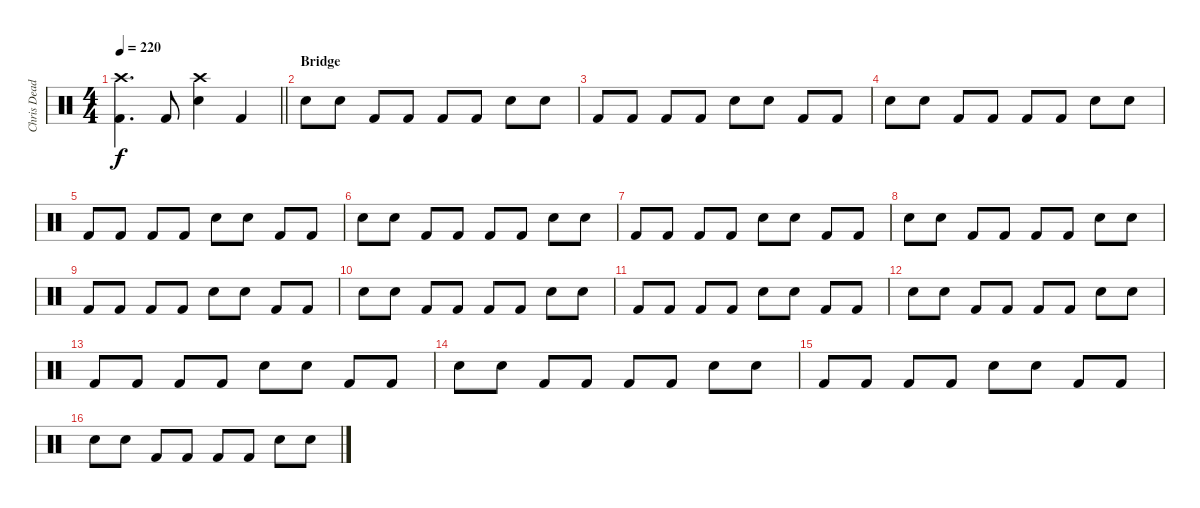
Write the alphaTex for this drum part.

\track ("Chris Dead" "Chris Dead") {instrument percussion}
\staff {score}
\articulation defaults
\ts (4 4)
\tempo 220
\clef neutral
\barLineRight lightlight
\ks c
("Crash high (hit)" "Kick (hit) 2").4{d dy f} "Kick (hit) 2".8 ("Crash high (hit)" "Electric Snare (hit)").4 "Kick (hit) 2".4 |
\section ("" "Bridge")
"Electric Snare (hit)".8 "Electric Snare (hit)".8 "Kick (hit) 2".8 "Kick (hit) 2".8 "Kick (hit) 2".8 "Kick (hit) 2".8 "Electric Snare (hit)".8 "Electric Snare (hit)".8 |
"Kick (hit) 2".8 "Kick (hit) 2".8 "Kick (hit) 2".8 "Kick (hit) 2".8 "Electric Snare (hit)".8 "Electric Snare (hit)".8 "Kick (hit) 2".8 "Kick (hit) 2".8 |
"Electric Snare (hit)".8 "Electric Snare (hit)".8 "Kick (hit) 2".8 "Kick (hit) 2".8 "Kick (hit) 2".8 "Kick (hit) 2".8 "Electric Snare (hit)".8 "Electric Snare (hit)".8 |
"Kick (hit) 2".8 "Kick (hit) 2".8 "Kick (hit) 2".8 "Kick (hit) 2".8 "Electric Snare (hit)".8 "Electric Snare (hit)".8 "Kick (hit) 2".8 "Kick (hit) 2".8 |
"Electric Snare (hit)".8 "Electric Snare (hit)".8 "Kick (hit) 2".8 "Kick (hit) 2".8 "Kick (hit) 2".8 "Kick (hit) 2".8 "Electric Snare (hit)".8 "Electric Snare (hit)".8 |
"Kick (hit) 2".8 "Kick (hit) 2".8 "Kick (hit) 2".8 "Kick (hit) 2".8 "Electric Snare (hit)".8 "Electric Snare (hit)".8 "Kick (hit) 2".8 "Kick (hit) 2".8 |
"Electric Snare (hit)".8 "Electric Snare (hit)".8 "Kick (hit) 2".8 "Kick (hit) 2".8 "Kick (hit) 2".8 "Kick (hit) 2".8 "Electric Snare (hit)".8 "Electric Snare (hit)".8 |
"Kick (hit) 2".8 "Kick (hit) 2".8 "Kick (hit) 2".8 "Kick (hit) 2".8 "Electric Snare (hit)".8 "Electric Snare (hit)".8 "Kick (hit) 2".8 "Kick (hit) 2".8 |
"Electric Snare (hit)".8 "Electric Snare (hit)".8 "Kick (hit) 2".8 "Kick (hit) 2".8 "Kick (hit) 2".8 "Kick (hit) 2".8 "Electric Snare (hit)".8 "Electric Snare (hit)".8 |
"Kick (hit) 2".8 "Kick (hit) 2".8 "Kick (hit) 2".8 "Kick (hit) 2".8 "Electric Snare (hit)".8 "Electric Snare (hit)".8 "Kick (hit) 2".8 "Kick (hit) 2".8 |
"Electric Snare (hit)".8 "Electric Snare (hit)".8 "Kick (hit) 2".8 "Kick (hit) 2".8 "Kick (hit) 2".8 "Kick (hit) 2".8 "Electric Snare (hit)".8 "Electric Snare (hit)".8 |
"Kick (hit) 2".8 "Kick (hit) 2".8 "Kick (hit) 2".8 "Kick (hit) 2".8 "Electric Snare (hit)".8 "Electric Snare (hit)".8 "Kick (hit) 2".8 "Kick (hit) 2".8 |
"Electric Snare (hit)".8 "Electric Snare (hit)".8 "Kick (hit) 2".8 "Kick (hit) 2".8 "Kick (hit) 2".8 "Kick (hit) 2".8 "Electric Snare (hit)".8 "Electric Snare (hit)".8 |
"Kick (hit) 2".8 "Kick (hit) 2".8 "Kick (hit) 2".8 "Kick (hit) 2".8 "Electric Snare (hit)".8 "Electric Snare (hit)".8 "Kick (hit) 2".8 "Kick (hit) 2".8 |
"Electric Snare (hit)".8 "Electric Snare (hit)".8 "Kick (hit) 2".8 "Kick (hit) 2".8 "Kick (hit) 2".8 "Kick (hit) 2".8 "Electric Snare (hit)".8 "Electric Snare (hit)".8
